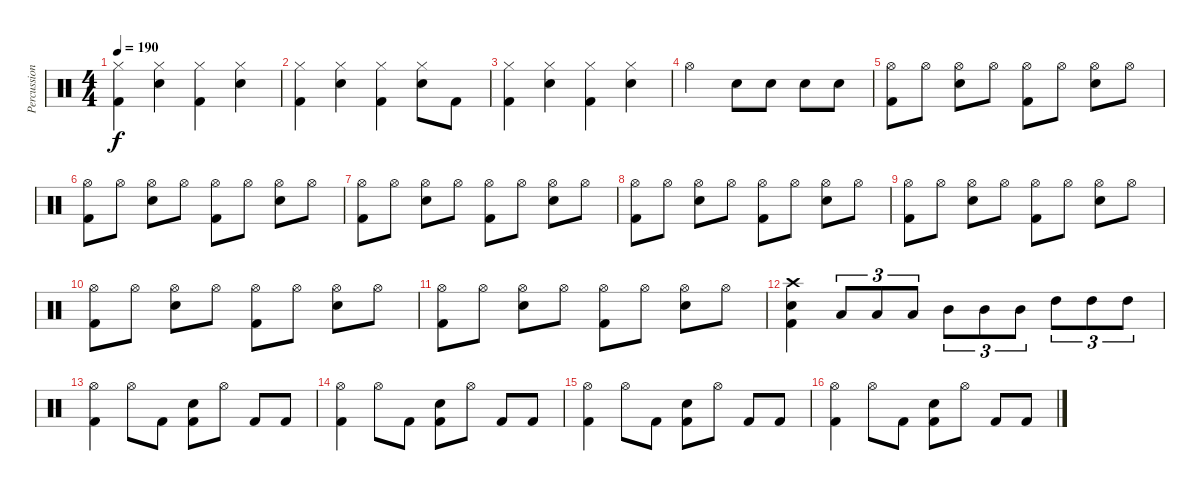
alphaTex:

\track ("Percussions" "Percussion") {instrument percussion}
\staff {score}
\articulation defaults
\ts (4 4)
\tempo 190
\clef neutral
\ks c
("Hi-Hat (closed)" "Kick (hit) 2").4{dy f} ("Hi-Hat (closed)" "Snare (hit) 2").4 ("Hi-Hat (closed)" "Kick (hit) 2").4 ("Hi-Hat (closed)" "Snare (hit) 2").4 |
("Hi-Hat (closed)" "Kick (hit) 2").4 ("Hi-Hat (closed)" "Snare (hit) 2").4 ("Hi-Hat (closed)" "Kick (hit) 2").4 ("Hi-Hat (closed)" "Snare (hit) 2").8 "Kick (hit) 2".8 |
("Hi-Hat (closed)" "Kick (hit) 2").4 ("Hi-Hat (closed)" "Snare (hit) 2").4 ("Hi-Hat (closed)" "Kick (hit) 2").4 ("Hi-Hat (closed)" "Snare (hit) 2").4 |
"Hi-Hat (open)".2 "Snare (hit) 2".8 "Snare (hit) 2".8 "Snare (hit) 2".8 "Snare (hit) 2".8 |
("Hi-Hat (open)" "Kick (hit) 2").8 "Hi-Hat (open)".8 ("Hi-Hat (open)" "Snare (hit) 2").8 "Hi-Hat (open)".8 ("Hi-Hat (open)" "Kick (hit) 2").8 "Hi-Hat (open)".8 ("Hi-Hat (open)" "Snare (hit) 2").8 "Hi-Hat (open)".8 |
("Hi-Hat (open)" "Kick (hit) 2").8 "Hi-Hat (open)".8 ("Hi-Hat (open)" "Snare (hit) 2").8 "Hi-Hat (open)".8 ("Hi-Hat (open)" "Kick (hit) 2").8 "Hi-Hat (open)".8 ("Hi-Hat (open)" "Snare (hit) 2").8 "Hi-Hat (open)".8 |
("Hi-Hat (open)" "Kick (hit) 2").8 "Hi-Hat (open)".8 ("Hi-Hat (open)" "Snare (hit) 2").8 "Hi-Hat (open)".8 ("Hi-Hat (open)" "Kick (hit) 2").8 "Hi-Hat (open)".8 ("Hi-Hat (open)" "Snare (hit) 2").8 "Hi-Hat (open)".8 |
("Hi-Hat (open)" "Kick (hit) 2").8 "Hi-Hat (open)".8 ("Hi-Hat (open)" "Snare (hit) 2").8 "Hi-Hat (open)".8 ("Hi-Hat (open)" "Kick (hit) 2").8 "Hi-Hat (open)".8 ("Hi-Hat (open)" "Snare (hit) 2").8 "Hi-Hat (open)".8 |
("Hi-Hat (open)" "Kick (hit) 2").8 "Hi-Hat (open)".8 ("Hi-Hat (open)" "Snare (hit) 2").8 "Hi-Hat (open)".8 ("Hi-Hat (open)" "Kick (hit) 2").8 "Hi-Hat (open)".8 ("Hi-Hat (open)" "Snare (hit) 2").8 "Hi-Hat (open)".8 |
("Hi-Hat (open)" "Kick (hit) 2").8 "Hi-Hat (open)".8 ("Hi-Hat (open)" "Snare (hit) 2").8 "Hi-Hat (open)".8 ("Hi-Hat (open)" "Kick (hit) 2").8 "Hi-Hat (open)".8 ("Hi-Hat (open)" "Snare (hit) 2").8 "Hi-Hat (open)".8 |
("Hi-Hat (open)" "Kick (hit) 2").8 "Hi-Hat (open)".8 ("Hi-Hat (open)" "Snare (hit) 2").8 "Hi-Hat (open)".8 ("Hi-Hat (open)" "Kick (hit) 2").8 "Hi-Hat (open)".8 ("Hi-Hat (open)" "Snare (hit) 2").8 "Hi-Hat (open)".8 |
("Crash high (hit)" "Snare (hit) 2" "Kick (hit) 2").4 "Low Tom (hit)".8{tu (3 2)} "Low Tom (hit)".8{tu (3 2)} "Low Tom (hit)".8{tu (3 2)} "Mid Tom (hit)".8{tu (3 2)} "Mid Tom (hit)".8{tu (3 2)} "Mid Tom (hit)".8{tu (3 2)} "High Tom (hit)".8{tu (3 2)} "High Tom (hit)".8{tu (3 2)} "High Tom (hit)".8{tu (3 2)} |
("Hi-Hat (open)" "Kick (hit) 2").4 "Hi-Hat (open)".8 "Kick (hit) 2".8 ("Snare (hit) 2" "Kick (hit) 2").8 "Hi-Hat (open)".8 "Kick (hit) 2".8 "Kick (hit) 2".8 |
("Hi-Hat (open)" "Kick (hit) 2").4 "Hi-Hat (open)".8 "Kick (hit) 2".8 ("Snare (hit) 2" "Kick (hit) 2").8 "Hi-Hat (open)".8 "Kick (hit) 2".8 "Kick (hit) 2".8 |
("Hi-Hat (open)" "Kick (hit) 2").4 "Hi-Hat (open)".8 "Kick (hit) 2".8 ("Snare (hit) 2" "Kick (hit) 2").8 "Hi-Hat (open)".8 "Kick (hit) 2".8 "Kick (hit) 2".8 |
("Hi-Hat (open)" "Kick (hit) 2").4 "Hi-Hat (open)".8 "Kick (hit) 2".8 ("Snare (hit) 2" "Kick (hit) 2").8 "Hi-Hat (open)".8 "Kick (hit) 2".8 "Kick (hit) 2".8
